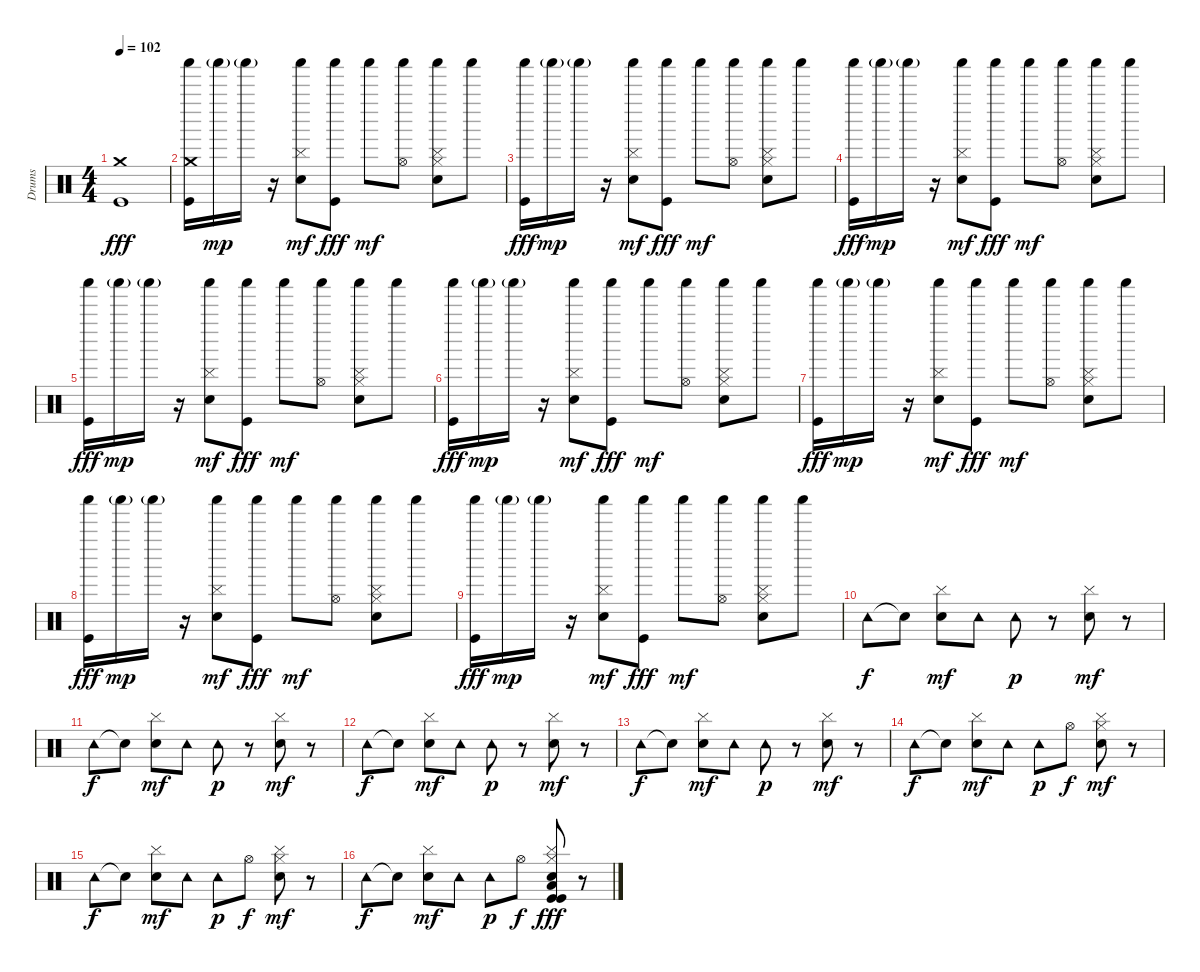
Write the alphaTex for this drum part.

\track ("Drums" "Drums") {instrument percussion}
\staff {score}
\articulation defaults
\ts (4 4)
\tempo 102
\clef neutral
\ks c
("Kick (hit)" "Crash medium (hit)").1{dy fff} |
("Shaker (hit)" "Kick (hit)" "Crash medium (hit)").16 "Shaker (hit)"{g}.16{dy mp} "Shaker (hit)"{g}.16 r.16 ("Shaker (hit)" "Hand Clap (hit)" "Cymbal (hit)").8{dy mf} ("Shaker (hit)" "Kick (hit)").8{dy fff} "Shaker (hit)".8{dy mf} ("Shaker (hit)" "Hi-Hat (open)").8 ("Hi-Hat (closed)" "Hand Clap (hit)" "Cymbal (hit)" "Shaker (hit)").8 "Shaker (hit)".8 |
("Shaker (hit)" "Kick (hit)").16{dy fff} "Shaker (hit)"{g}.16{dy mp} "Shaker (hit)"{g}.16 r.16 ("Shaker (hit)" "Hand Clap (hit)" "Cymbal (hit)").8{dy mf} ("Shaker (hit)" "Kick (hit)").8{dy fff} "Shaker (hit)".8{dy mf} ("Shaker (hit)" "Hi-Hat (open)").8 ("Hi-Hat (closed)" "Hand Clap (hit)" "Cymbal (hit)" "Shaker (hit)").8 "Shaker (hit)".8 |
("Shaker (hit)" "Kick (hit)").16{dy fff} "Shaker (hit)"{g}.16{dy mp} "Shaker (hit)"{g}.16 r.16 ("Shaker (hit)" "Hand Clap (hit)" "Cymbal (hit)").8{dy mf} ("Shaker (hit)" "Kick (hit)").8{dy fff} "Shaker (hit)".8{dy mf} ("Shaker (hit)" "Hi-Hat (open)").8 ("Hi-Hat (closed)" "Hand Clap (hit)" "Cymbal (hit)" "Shaker (hit)").8 "Shaker (hit)".8 |
("Shaker (hit)" "Kick (hit)").16{dy fff} "Shaker (hit)"{g}.16{dy mp} "Shaker (hit)"{g}.16 r.16 ("Shaker (hit)" "Hand Clap (hit)" "Cymbal (hit)").8{dy mf} ("Shaker (hit)" "Kick (hit)").8{dy fff} "Shaker (hit)".8{dy mf} ("Shaker (hit)" "Hi-Hat (open)").8 ("Hi-Hat (closed)" "Hand Clap (hit)" "Cymbal (hit)" "Shaker (hit)").8 "Shaker (hit)".8 |
("Shaker (hit)" "Kick (hit)").16{dy fff} "Shaker (hit)"{g}.16{dy mp} "Shaker (hit)"{g}.16 r.16 ("Shaker (hit)" "Hand Clap (hit)" "Cymbal (hit)").8{dy mf} ("Shaker (hit)" "Kick (hit)").8{dy fff} "Shaker (hit)".8{dy mf} ("Shaker (hit)" "Hi-Hat (open)").8 ("Hi-Hat (closed)" "Hand Clap (hit)" "Cymbal (hit)" "Shaker (hit)").8 "Shaker (hit)".8 |
("Shaker (hit)" "Kick (hit)").16{dy fff} "Shaker (hit)"{g}.16{dy mp} "Shaker (hit)"{g}.16 r.16 ("Shaker (hit)" "Hand Clap (hit)" "Cymbal (hit)").8{dy mf} ("Shaker (hit)" "Kick (hit)").8{dy fff} "Shaker (hit)".8{dy mf} ("Shaker (hit)" "Hi-Hat (open)").8 ("Hi-Hat (closed)" "Hand Clap (hit)" "Cymbal (hit)" "Shaker (hit)").8 "Shaker (hit)".8 |
("Shaker (hit)" "Kick (hit)").16{dy fff} "Shaker (hit)"{g}.16{dy mp} "Shaker (hit)"{g}.16 r.16 ("Shaker (hit)" "Hand Clap (hit)" "Cymbal (hit)").8{dy mf} ("Shaker (hit)" "Kick (hit)").8{dy fff} "Shaker (hit)".8{dy mf} ("Shaker (hit)" "Hi-Hat (open)").8 ("Hi-Hat (closed)" "Hand Clap (hit)" "Cymbal (hit)" "Shaker (hit)").8 "Shaker (hit)".8 |
("Shaker (hit)" "Kick (hit)").16{dy fff} "Shaker (hit)"{g}.16{dy mp} "Shaker (hit)"{g}.16 r.16 ("Shaker (hit)" "Hand Clap (hit)" "Cymbal (hit)").8{dy mf} ("Shaker (hit)" "Kick (hit)").8{dy fff} "Shaker (hit)".8{dy mf} ("Shaker (hit)" "Hi-Hat (open)").8 ("Hi-Hat (closed)" "Hand Clap (hit)" "Cymbal (hit)" "Shaker (hit)").8 "Shaker (hit)".8 |
"Tambourine (hit)".8{dy f} "Hand Clap (hit)"{t}.8 ("Hand Clap (hit)" "Cymbal (hit)").8{dy mf} "Tambourine (hit)".8 "Tambourine (hit)".8{dy p} r.8 ("Hand Clap (hit)" "Cymbal (hit)").8{dy mf} r.8 |
"Tambourine (hit)".8{dy f} "Hand Clap (hit)"{t}.8 ("Hand Clap (hit)" "Cymbal (hit)").8{dy mf} "Tambourine (hit)".8 "Tambourine (hit)".8{dy p} r.8 ("Hand Clap (hit)" "Cymbal (hit)").8{dy mf} r.8 |
"Tambourine (hit)".8{dy f} "Hand Clap (hit)"{t}.8 ("Hand Clap (hit)" "Cymbal (hit)").8{dy mf} "Tambourine (hit)".8 "Tambourine (hit)".8{dy p} r.8 ("Hand Clap (hit)" "Cymbal (hit)").8{dy mf} r.8 |
"Tambourine (hit)".8{dy f} "Hand Clap (hit)"{t}.8 ("Hand Clap (hit)" "Cymbal (hit)").8{dy mf} "Tambourine (hit)".8 "Tambourine (hit)".8{dy p} r.8 ("Hand Clap (hit)" "Cymbal (hit)").8{dy mf} r.8 |
"Tambourine (hit)".8{dy f} "Hand Clap (hit)"{t}.8 ("Hand Clap (hit)" "Cymbal (hit)").8{dy mf} "Tambourine (hit)".8 "Tambourine (hit)".8{dy p} "Hi-Hat (open)".8{dy f} ("Hand Clap (hit)" "Cymbal (hit)" "Hi-Hat (closed)").8{dy mf} r.8 |
"Tambourine (hit)".8{dy f} "Hand Clap (hit)"{t}.8 ("Hand Clap (hit)" "Cymbal (hit)").8{dy mf} "Tambourine (hit)".8 "Tambourine (hit)".8{dy p} "Hi-Hat (open)".8{dy f} ("Hand Clap (hit)" "Cymbal (hit)" "Hi-Hat (closed)").8{dy mf} r.8 |
"Tambourine (hit)".8{dy f} "Hand Clap (hit)"{t}.8 ("Hand Clap (hit)" "Cymbal (hit)").8{dy mf} "Tambourine (hit)".8 "Tambourine (hit)".8{dy p} "Hi-Hat (open)".8{dy f} ("Hand Clap (hit)" "Cymbal (hit)" "Low Floor Tom (hit)" "Kick (hit)" "Kick (hit)" "Hi-Hat (closed)").8{dy fff} r.8
